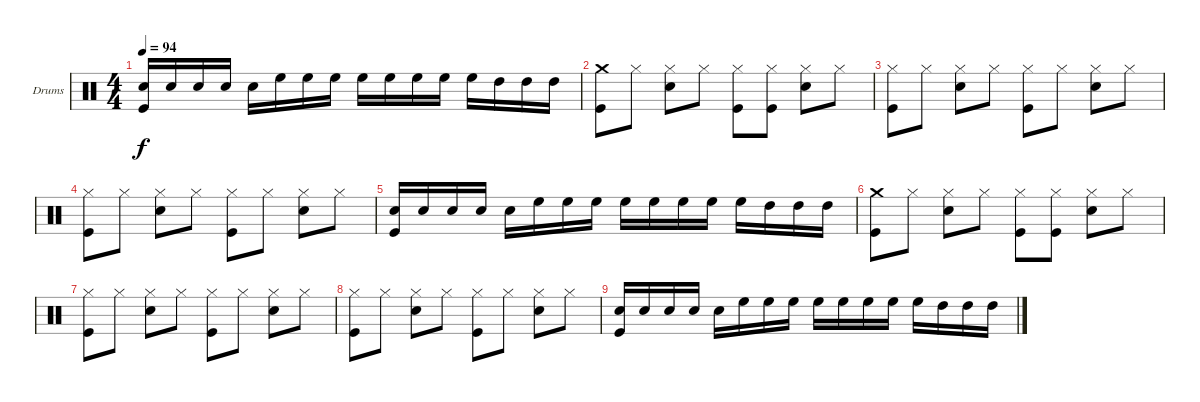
\bracketExtendMode groupsimilarinstruments
\firstSystemTrackNameOrientation horizontal
\otherSystemsTrackNameOrientation horizontal
\track ("Drumkit" "Drums") {instrument percussion}
\staff {score}
\articulation defaults
\ts (4 4)
\tempo 94
\clef neutral
\ks c
("Snare (hit) 2" "Kick (hit)").16{dy f} "Snare (hit) 2".16 "Snare (hit) 2".16 "Snare (hit) 2".16 "Snare (hit) 2".16 "High Floor Tom (hit)".16 "High Floor Tom (hit)".16 "High Floor Tom (hit)".16 "High Floor Tom (hit)".16 "High Floor Tom (hit)".16 "High Floor Tom (hit)".16 "High Floor Tom (hit)".16 "High Floor Tom (hit)".16 "High Tom (hit)".16 "High Tom (hit)".16 "High Tom (hit)".16 |
("Crash medium (hit)" "Kick (hit)").8 "Hi-Hat (closed)".8 ("Hi-Hat (closed)" "Snare (hit) 2").8 "Hi-Hat (closed)".8 ("Hi-Hat (closed)" "Kick (hit)").8 ("Hi-Hat (closed)" "Kick (hit)").8 ("Hi-Hat (closed)" "Snare (hit) 2").8 "Hi-Hat (closed)".8 |
("Hi-Hat (closed)" "Kick (hit)").8 "Hi-Hat (closed)".8 ("Hi-Hat (closed)" "Snare (hit) 2").8 "Hi-Hat (closed)".8 ("Hi-Hat (closed)" "Kick (hit)").8 "Hi-Hat (closed)".8 ("Hi-Hat (closed)" "Snare (hit) 2").8 "Hi-Hat (closed)".8 |
("Hi-Hat (closed)" "Kick (hit)").8 "Hi-Hat (closed)".8 ("Hi-Hat (closed)" "Snare (hit) 2").8 "Hi-Hat (closed)".8 ("Hi-Hat (closed)" "Kick (hit)").8 "Hi-Hat (closed)".8 ("Hi-Hat (closed)" "Snare (hit) 2").8 "Hi-Hat (closed)".8 |
("Snare (hit) 2" "Kick (hit)").16 "Snare (hit) 2".16 "Snare (hit) 2".16 "Snare (hit) 2".16 "Snare (hit) 2".16 "High Floor Tom (hit)".16 "High Floor Tom (hit)".16 "High Floor Tom (hit)".16 "High Floor Tom (hit)".16 "High Floor Tom (hit)".16 "High Floor Tom (hit)".16 "High Floor Tom (hit)".16 "High Floor Tom (hit)".16 "High Tom (hit)".16 "High Tom (hit)".16 "High Tom (hit)".16 |
("Crash medium (hit)" "Kick (hit)").8 "Hi-Hat (closed)".8 ("Hi-Hat (closed)" "Snare (hit) 2").8 "Hi-Hat (closed)".8 ("Hi-Hat (closed)" "Kick (hit)").8 ("Hi-Hat (closed)" "Kick (hit)").8 ("Hi-Hat (closed)" "Snare (hit) 2").8 "Hi-Hat (closed)".8 |
("Hi-Hat (closed)" "Kick (hit)").8 "Hi-Hat (closed)".8 ("Hi-Hat (closed)" "Snare (hit) 2").8 "Hi-Hat (closed)".8 ("Hi-Hat (closed)" "Kick (hit)").8 "Hi-Hat (closed)".8 ("Hi-Hat (closed)" "Snare (hit) 2").8 "Hi-Hat (closed)".8 |
("Hi-Hat (closed)" "Kick (hit)").8 "Hi-Hat (closed)".8 ("Hi-Hat (closed)" "Snare (hit) 2").8 "Hi-Hat (closed)".8 ("Hi-Hat (closed)" "Kick (hit)").8 "Hi-Hat (closed)".8 ("Hi-Hat (closed)" "Snare (hit) 2").8 "Hi-Hat (closed)".8 |
("Snare (hit) 2" "Kick (hit)").16 "Snare (hit) 2".16 "Snare (hit) 2".16 "Snare (hit) 2".16 "Snare (hit) 2".16 "High Floor Tom (hit)".16 "High Floor Tom (hit)".16 "High Floor Tom (hit)".16 "High Floor Tom (hit)".16 "High Floor Tom (hit)".16 "High Floor Tom (hit)".16 "High Floor Tom (hit)".16 "High Floor Tom (hit)".16 "High Tom (hit)".16 "High Tom (hit)".16 "High Tom (hit)".16
